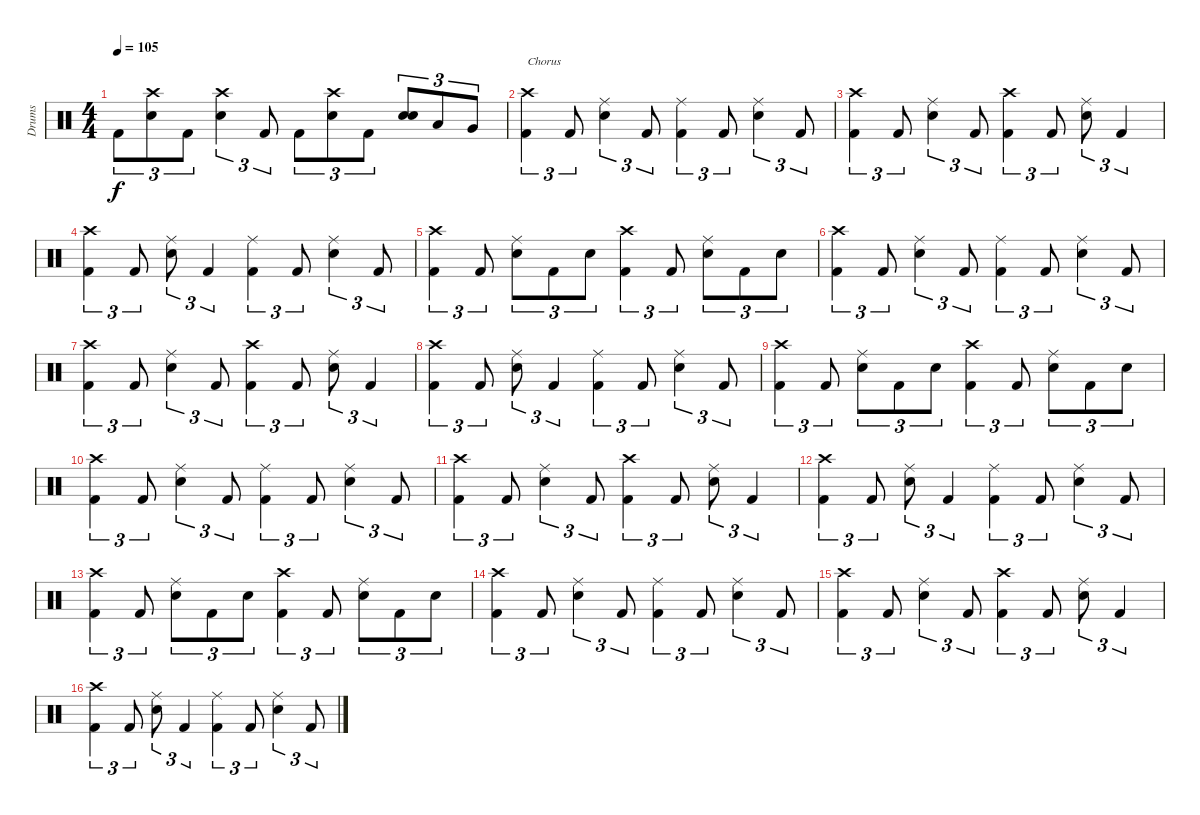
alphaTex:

\track ("Drums" "Drums") {instrument percussion}
\staff {score}
\articulation defaults
\ts (4 4)
\tempo 105
\clef neutral
\ks c "Kick (hit) 2".8{tu (3 2) dy f}
("Crash high (hit)" "Snare (hit) 2").8{tu (3 2)} "Kick (hit) 2".8{tu (3 2)} ("Crash high (hit)" "Snare (hit) 2").4{tu (3 2)} "Kick (hit) 2".8{tu (3 2)} "Kick (hit) 2".8{tu (3 2)} ("Crash high (hit)" "Snare (hit) 2").8{tu (3 2)} "Kick (hit) 2".8{tu (3 2)} ("Snare (hit) 2" "Snare (hit) 2").8{tu (3 2)} "Low Tom (hit)".8{tu (3 2)} "Very Low Tom (hit)".8{tu (3 2)} |
("Crash high (hit)" "Kick (hit) 2").4{tu (3 2) txt "Chorus"} "Kick (hit) 2".8{tu (3 2)} ("Ride (middle)" "Snare (hit) 2").4{tu (3 2)} "Kick (hit) 2".8{tu (3 2)} ("Ride (middle)" "Kick (hit) 2").4{tu (3 2)} "Kick (hit) 2".8{tu (3 2)} ("Ride (middle)" "Snare (hit) 2").4{tu (3 2)} "Kick (hit) 2".8{tu (3 2)} |
("Crash high (hit)" "Kick (hit) 2").4{tu (3 2)} "Kick (hit) 2".8{tu (3 2)} ("Ride (middle)" "Snare (hit) 2").4{tu (3 2)} "Kick (hit) 2".8{tu (3 2)} ("Crash high (hit)" "Kick (hit) 2").4{tu (3 2)} "Kick (hit) 2".8{tu (3 2)} ("Ride (middle)" "Snare (hit) 2").8{tu (3 2)} "Kick (hit) 2".4{tu (3 2)} |
("Crash high (hit)" "Kick (hit) 2").4{tu (3 2)} "Kick (hit) 2".8{tu (3 2)} ("Ride (middle)" "Snare (hit) 2").8{tu (3 2)} "Kick (hit) 2".4{tu (3 2)} ("Ride (middle)" "Kick (hit) 2").4{tu (3 2)} "Kick (hit) 2".8{tu (3 2)} ("Ride (middle)" "Snare (hit) 2").4{tu (3 2)} "Kick (hit) 2".8{tu (3 2)} |
("Crash high (hit)" "Kick (hit) 2").4{tu (3 2)} "Kick (hit) 2".8{tu (3 2)} ("Ride (middle)" "Snare (hit) 2").8{tu (3 2)} "Kick (hit) 2".8{tu (3 2)} "Snare (hit) 2".8{tu (3 2)} ("Crash high (hit)" "Kick (hit) 2").4{tu (3 2)} "Kick (hit) 2".8{tu (3 2)} ("Ride (middle)" "Snare (hit) 2").8{tu (3 2)} "Kick (hit) 2".8{tu (3 2)} "Snare (hit) 2".8{tu (3 2)} |
("Crash high (hit)" "Kick (hit) 2").4{tu (3 2)} "Kick (hit) 2".8{tu (3 2)} ("Ride (middle)" "Snare (hit) 2").4{tu (3 2)} "Kick (hit) 2".8{tu (3 2)} ("Ride (middle)" "Kick (hit) 2").4{tu (3 2)} "Kick (hit) 2".8{tu (3 2)} ("Ride (middle)" "Snare (hit) 2").4{tu (3 2)} "Kick (hit) 2".8{tu (3 2)} |
("Crash high (hit)" "Kick (hit) 2").4{tu (3 2)} "Kick (hit) 2".8{tu (3 2)} ("Ride (middle)" "Snare (hit) 2").4{tu (3 2)} "Kick (hit) 2".8{tu (3 2)} ("Crash high (hit)" "Kick (hit) 2").4{tu (3 2)} "Kick (hit) 2".8{tu (3 2)} ("Ride (middle)" "Snare (hit) 2").8{tu (3 2)} "Kick (hit) 2".4{tu (3 2)} |
("Crash high (hit)" "Kick (hit) 2").4{tu (3 2)} "Kick (hit) 2".8{tu (3 2)} ("Ride (middle)" "Snare (hit) 2").8{tu (3 2)} "Kick (hit) 2".4{tu (3 2)} ("Ride (middle)" "Kick (hit) 2").4{tu (3 2)} "Kick (hit) 2".8{tu (3 2)} ("Ride (middle)" "Snare (hit) 2").4{tu (3 2)} "Kick (hit) 2".8{tu (3 2)} |
("Crash high (hit)" "Kick (hit) 2").4{tu (3 2)} "Kick (hit) 2".8{tu (3 2)} ("Ride (middle)" "Snare (hit) 2").8{tu (3 2)} "Kick (hit) 2".8{tu (3 2)} "Snare (hit) 2".8{tu (3 2)} ("Crash high (hit)" "Kick (hit) 2").4{tu (3 2)} "Kick (hit) 2".8{tu (3 2)} ("Ride (middle)" "Snare (hit) 2").8{tu (3 2)} "Kick (hit) 2".8{tu (3 2)} "Snare (hit) 2".8{tu (3 2)} |
("Crash high (hit)" "Kick (hit) 2").4{tu (3 2)} "Kick (hit) 2".8{tu (3 2)} ("Ride (middle)" "Snare (hit) 2").4{tu (3 2)} "Kick (hit) 2".8{tu (3 2)} ("Ride (middle)" "Kick (hit) 2").4{tu (3 2)} "Kick (hit) 2".8{tu (3 2)} ("Ride (middle)" "Snare (hit) 2").4{tu (3 2)} "Kick (hit) 2".8{tu (3 2)} |
("Crash high (hit)" "Kick (hit) 2").4{tu (3 2)} "Kick (hit) 2".8{tu (3 2)} ("Ride (middle)" "Snare (hit) 2").4{tu (3 2)} "Kick (hit) 2".8{tu (3 2)} ("Crash high (hit)" "Kick (hit) 2").4{tu (3 2)} "Kick (hit) 2".8{tu (3 2)} ("Ride (middle)" "Snare (hit) 2").8{tu (3 2)} "Kick (hit) 2".4{tu (3 2)} |
("Crash high (hit)" "Kick (hit) 2").4{tu (3 2)} "Kick (hit) 2".8{tu (3 2)} ("Ride (middle)" "Snare (hit) 2").8{tu (3 2)} "Kick (hit) 2".4{tu (3 2)} ("Ride (middle)" "Kick (hit) 2").4{tu (3 2)} "Kick (hit) 2".8{tu (3 2)} ("Ride (middle)" "Snare (hit) 2").4{tu (3 2)} "Kick (hit) 2".8{tu (3 2)} |
("Crash high (hit)" "Kick (hit) 2").4{tu (3 2)} "Kick (hit) 2".8{tu (3 2)} ("Ride (middle)" "Snare (hit) 2").8{tu (3 2)} "Kick (hit) 2".8{tu (3 2)} "Snare (hit) 2".8{tu (3 2)} ("Crash high (hit)" "Kick (hit) 2").4{tu (3 2)} "Kick (hit) 2".8{tu (3 2)} ("Ride (middle)" "Snare (hit) 2").8{tu (3 2)} "Kick (hit) 2".8{tu (3 2)} "Snare (hit) 2".8{tu (3 2)} |
("Crash high (hit)" "Kick (hit) 2").4{tu (3 2)} "Kick (hit) 2".8{tu (3 2)} ("Ride (middle)" "Snare (hit) 2").4{tu (3 2)} "Kick (hit) 2".8{tu (3 2)} ("Ride (middle)" "Kick (hit) 2").4{tu (3 2)} "Kick (hit) 2".8{tu (3 2)} ("Ride (middle)" "Snare (hit) 2").4{tu (3 2)} "Kick (hit) 2".8{tu (3 2)} |
("Crash high (hit)" "Kick (hit) 2").4{tu (3 2)} "Kick (hit) 2".8{tu (3 2)} ("Ride (middle)" "Snare (hit) 2").4{tu (3 2)} "Kick (hit) 2".8{tu (3 2)} ("Crash high (hit)" "Kick (hit) 2").4{tu (3 2)} "Kick (hit) 2".8{tu (3 2)} ("Ride (middle)" "Snare (hit) 2").8{tu (3 2)} "Kick (hit) 2".4{tu (3 2)} |
("Crash high (hit)" "Kick (hit) 2").4{tu (3 2)} "Kick (hit) 2".8{tu (3 2)} ("Ride (middle)" "Snare (hit) 2").8{tu (3 2)} "Kick (hit) 2".4{tu (3 2)} ("Ride (middle)" "Kick (hit) 2").4{tu (3 2)} "Kick (hit) 2".8{tu (3 2)} ("Ride (middle)" "Snare (hit) 2").4{tu (3 2)} "Kick (hit) 2".8{tu (3 2)}
